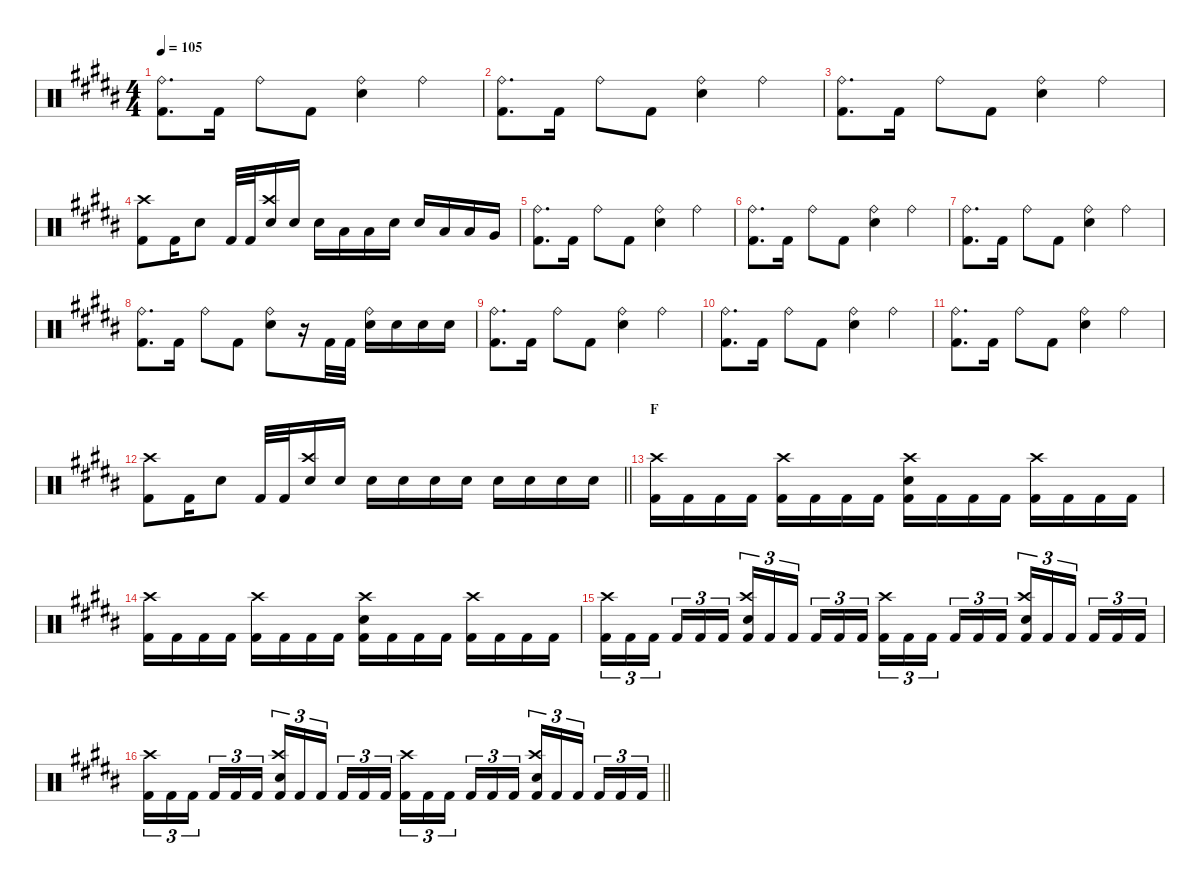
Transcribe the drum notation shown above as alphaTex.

\defaultSystemsLayout 4
\hideDynamics
\bracketExtendMode nobrackets
\singleTrackTrackNamePolicy hidden
\multiTrackTrackNamePolicy hidden
\firstSystemTrackNameMode fullname
\firstSystemTrackNameOrientation horizontal
\otherSystemsTrackNameOrientation horizontal
\track ("Percussions" "drm.") {instrument percussion}
\staff {score}
\articulation defaults
\ts (4 4)
\tempo 105
\clef neutral
\ks b
("Ride (bell)"{acc bb} "Kick (hit) 2"{acc bb}).8{d dy fff beam Down} "Kick (hit) 2"{acc bb}.16{beam Down} "Ride (bell)"{acc bb}.8{beam Down} "Kick (hit) 2"{acc bb}.8{beam Down} ("Ride (bell)"{acc bb} "Snare (hit) 2"{acc bb}).4{beam Down} "Ride (bell)"{acc bb}.4{beam Down} |
("Ride (bell)"{acc bb} "Kick (hit) 2"{acc bb}).8{d beam Down} "Kick (hit) 2"{acc bb}.16{beam Down} "Ride (bell)"{acc bb}.8{beam Down} "Kick (hit) 2"{acc bb}.8{beam Down} ("Ride (bell)"{acc bb} "Snare (hit) 2"{acc bb}).4{beam Down} "Ride (bell)"{acc bb}.4{beam Down} |
("Ride (bell)"{acc bb} "Kick (hit) 2"{acc bb}).8{d beam Down} "Kick (hit) 2"{acc bb}.16{beam Down} "Ride (bell)"{acc bb}.8{beam Down} "Kick (hit) 2"{acc bb}.8{beam Down} ("Ride (bell)"{acc bb} "Snare (hit) 2"{acc bb}).4{beam Down} "Ride (bell)"{acc bb}.4{beam Down} |
("Crash high (hit)"{acc bb} "Kick (hit) 2"{acc bb}).8{beam Down} "Kick (hit) 2"{acc bb}.16{beam Down} "Snare (hit) 2"{acc bb}.8{beam Down} "Kick (hit) 2"{acc bb}.32{beam Up} "Kick (hit) 2"{acc bb}.32{beam Up} ("Crash high (hit)"{acc bb} "Snare (hit) 2"{acc bb}).16{beam Up} "Snare (hit) 2"{acc bb}.16{beam Up} "Snare (hit) 2"{acc bb}.16{beam Down} "Low Tom (hit)"{acc bb}.16{beam Down} "Low Tom (hit)"{acc bb}.16{beam Down} "Snare (hit) 2"{acc bb}.16{beam Down} "Snare (hit) 2"{acc bb}.16{beam Up} "Low Tom (hit)"{acc bb}.16{beam Up} "Low Tom (hit)"{acc bb}.16{beam Up} "Very Low Tom (hit)"{acc bb}.16{beam Up} |
("Ride (bell)"{acc bb} "Kick (hit) 2"{acc bb}).8{d beam Down} "Kick (hit) 2"{acc bb}.16{beam Down} "Ride (bell)"{acc bb}.8{beam Down} "Kick (hit) 2"{acc bb}.8{beam Down} ("Ride (bell)"{acc bb} "Snare (hit) 2"{acc bb}).4{beam Down} "Ride (bell)"{acc bb}.4{beam Down} |
("Ride (bell)"{acc bb} "Kick (hit) 2"{acc bb}).8{d beam Down} "Kick (hit) 2"{acc bb}.16{beam Down} "Ride (bell)"{acc bb}.8{beam Down} "Kick (hit) 2"{acc bb}.8{beam Down} ("Ride (bell)"{acc bb} "Snare (hit) 2"{acc bb}).4{beam Down} "Ride (bell)"{acc bb}.4{beam Down} |
("Ride (bell)"{acc bb} "Kick (hit) 2"{acc bb}).8{d beam Down} "Kick (hit) 2"{acc bb}.16{beam Down} "Ride (bell)"{acc bb}.8{beam Down} "Kick (hit) 2"{acc bb}.8{beam Down} ("Ride (bell)"{acc bb} "Snare (hit) 2"{acc bb}).4{beam Down} "Ride (bell)"{acc bb}.4{beam Down} |
("Ride (bell)"{acc bb} "Kick (hit) 2"{acc bb}).8{d beam Down} "Kick (hit) 2"{acc bb}.16{beam Down} "Ride (bell)"{acc bb}.8{beam Down} "Kick (hit) 2"{acc bb}.8{beam Down} ("Ride (bell)"{acc bb} "Snare (hit) 2"{acc bb}).8{beam Down} r.16{beam Down} "Kick (hit) 2"{acc bb}.32{beam Down} "Kick (hit) 2"{acc bb}.32{beam Down} ("Ride (bell)"{acc bb} "Snare (hit) 2"{acc bb}).16{beam Down} "Snare (hit) 2"{acc bb}.16{beam Down} "Snare (hit) 2"{acc bb}.16{beam Down} "Snare (hit) 2"{acc bb}.16{beam Down} |
("Ride (bell)"{acc bb} "Kick (hit) 2"{acc bb}).8{d beam Down} "Kick (hit) 2"{acc bb}.16{beam Down} "Ride (bell)"{acc bb}.8{beam Down} "Kick (hit) 2"{acc bb}.8{beam Down} ("Ride (bell)"{acc bb} "Snare (hit) 2"{acc bb}).4{beam Down} "Ride (bell)"{acc bb}.4{beam Down} |
("Ride (bell)"{acc bb} "Kick (hit) 2"{acc bb}).8{d beam Down} "Kick (hit) 2"{acc bb}.16{beam Down} "Ride (bell)"{acc bb}.8{beam Down} "Kick (hit) 2"{acc bb}.8{beam Down} ("Ride (bell)"{acc bb} "Snare (hit) 2"{acc bb}).4{beam Down} "Ride (bell)"{acc bb}.4{beam Down} |
("Ride (bell)"{acc bb} "Kick (hit) 2"{acc bb}).8{d beam Down} "Kick (hit) 2"{acc bb}.16{beam Down} "Ride (bell)"{acc bb}.8{beam Down} "Kick (hit) 2"{acc bb}.8{beam Down} ("Ride (bell)"{acc bb} "Snare (hit) 2"{acc bb}).4{beam Down} "Ride (bell)"{acc bb}.4{beam Down} |
\barLineRight lightlight
("Crash high (hit)"{acc bb} "Kick (hit) 2"{acc bb}).8{beam Down} "Kick (hit) 2"{acc bb}.16{beam Down} "Snare (hit) 2"{acc bb}.8{beam Down} "Kick (hit) 2"{acc bb}.32{beam Up} "Kick (hit) 2"{acc bb}.32{beam Up} ("Crash high (hit)"{acc bb} "Snare (hit) 2"{acc bb}).16{beam Up} "Snare (hit) 2"{acc bb}.16{beam Up} "Snare (hit) 2"{acc bb}.16{beam Down} "Snare (hit) 2"{acc bb}.16{beam Down} "Snare (hit) 2"{acc bb}.16{beam Down} "Snare (hit) 2"{acc bb}.16{beam Down} "Snare (hit) 2"{acc bb}.16{beam Down} "Snare (hit) 2"{acc bb}.16{beam Down} "Snare (hit) 2"{acc bb}.16{beam Down} "Snare (hit) 2"{acc bb}.16{beam Down} |
\section ("" "F")
("Crash high (hit)"{acc bb} "Kick (hit) 2"{acc bb}).16{beam Down} "Kick (hit) 2"{acc bb}.16{beam Down} "Kick (hit) 2"{acc bb}.16{beam Down} "Kick (hit) 2"{acc bb}.16{beam Down} ("Crash high (hit)"{acc bb} "Kick (hit) 2"{acc bb}).16{beam Down} "Kick (hit) 2"{acc bb}.16{beam Down} "Kick (hit) 2"{acc bb}.16{beam Down} "Kick (hit) 2"{acc bb}.16{beam Down} ("Crash high (hit)"{acc bb} "Snare (hit) 2"{acc bb} "Kick (hit) 2"{acc bb}).16{beam Down} "Kick (hit) 2"{acc bb}.16{beam Down} "Kick (hit) 2"{acc bb}.16{beam Down} "Kick (hit) 2"{acc bb}.16{beam Down} ("Crash high (hit)"{acc bb} "Kick (hit) 2"{acc bb}).16{beam Down} "Kick (hit) 2"{acc bb}.16{beam Down} "Kick (hit) 2"{acc bb}.16{beam Down} "Kick (hit) 2"{acc bb}.16{beam Down} |
("Crash high (hit)"{acc bb} "Kick (hit) 2"{acc bb}).16{beam Down} "Kick (hit) 2"{acc bb}.16{beam Down} "Kick (hit) 2"{acc bb}.16{beam Down} "Kick (hit) 2"{acc bb}.16{beam Down} ("Crash high (hit)"{acc bb} "Kick (hit) 2"{acc bb}).16{beam Down} "Kick (hit) 2"{acc bb}.16{beam Down} "Kick (hit) 2"{acc bb}.16{beam Down} "Kick (hit) 2"{acc bb}.16{beam Down} ("Crash high (hit)"{acc bb} "Snare (hit) 2"{acc bb} "Kick (hit) 2"{acc bb}).16{beam Down} "Kick (hit) 2"{acc bb}.16{beam Down} "Kick (hit) 2"{acc bb}.16{beam Down} "Kick (hit) 2"{acc bb}.16{beam Down} ("Crash high (hit)"{acc bb} "Kick (hit) 2"{acc bb}).16{beam Down} "Kick (hit) 2"{acc bb}.16{beam Down} "Kick (hit) 2"{acc bb}.16{beam Down} "Kick (hit) 2"{acc bb}.16{beam Down} |
("Crash high (hit)"{acc bb} "Kick (hit) 2"{acc bb}).16{tu (3 2) beam Down} "Kick (hit) 2"{acc bb}.16{tu (3 2) beam Down} "Kick (hit) 2"{acc bb}.16{tu (3 2) beam Down} "Kick (hit) 2"{acc bb}.16{tu (3 2) beam Up} "Kick (hit) 2"{acc bb}.16{tu (3 2) beam Up} "Kick (hit) 2"{acc bb}.16{tu (3 2) beam Up} ("Crash high (hit)"{acc bb} "Snare (hit) 2"{acc bb} "Kick (hit) 2"{acc bb}).16{tu (3 2) beam Up} "Kick (hit) 2"{acc bb}.16{tu (3 2) beam Up} "Kick (hit) 2"{acc bb}.16{tu (3 2) beam Up} "Kick (hit) 2"{acc bb}.16{tu (3 2) beam Up} "Kick (hit) 2"{acc bb}.16{tu (3 2) beam Up} "Kick (hit) 2"{acc bb}.16{tu (3 2) beam Up} ("Crash high (hit)"{acc bb} "Kick (hit) 2"{acc bb}).16{tu (3 2) beam Down} "Kick (hit) 2"{acc bb}.16{tu (3 2) beam Down} "Kick (hit) 2"{acc bb}.16{tu (3 2) beam Down} "Kick (hit) 2"{acc bb}.16{tu (3 2) beam Up} "Kick (hit) 2"{acc bb}.16{tu (3 2) beam Up} "Kick (hit) 2"{acc bb}.16{tu (3 2) beam Up} ("Crash high (hit)"{acc bb} "Snare (hit) 2"{acc bb} "Kick (hit) 2"{acc bb}).16{tu (3 2) beam Up} "Kick (hit) 2"{acc bb}.16{tu (3 2) beam Up} "Kick (hit) 2"{acc bb}.16{tu (3 2) beam Up} "Kick (hit) 2"{acc bb}.16{tu (3 2) beam Up} "Kick (hit) 2"{acc bb}.16{tu (3 2) beam Up} "Kick (hit) 2"{acc bb}.16{tu (3 2) beam Up} |
\barLineRight lightlight
("Crash high (hit)"{acc bb} "Kick (hit) 2"{acc bb}).16{tu (3 2) beam Down} "Kick (hit) 2"{acc bb}.16{tu (3 2) beam Down} "Kick (hit) 2"{acc bb}.16{tu (3 2) beam Down} "Kick (hit) 2"{acc bb}.16{tu (3 2) beam Up} "Kick (hit) 2"{acc bb}.16{tu (3 2) beam Up} "Kick (hit) 2"{acc bb}.16{tu (3 2) beam Up} ("Crash high (hit)"{acc bb} "Snare (hit) 2"{acc bb} "Kick (hit) 2"{acc bb}).16{tu (3 2) beam Up} "Kick (hit) 2"{acc bb}.16{tu (3 2) beam Up} "Kick (hit) 2"{acc bb}.16{tu (3 2) beam Up} "Kick (hit) 2"{acc bb}.16{tu (3 2) beam Up} "Kick (hit) 2"{acc bb}.16{tu (3 2) beam Up} "Kick (hit) 2"{acc bb}.16{tu (3 2) beam Up} ("Crash high (hit)"{acc bb} "Kick (hit) 2"{acc bb}).16{tu (3 2) beam Down} "Kick (hit) 2"{acc bb}.16{tu (3 2) beam Down} "Kick (hit) 2"{acc bb}.16{tu (3 2) beam Down} "Kick (hit) 2"{acc bb}.16{tu (3 2) beam Up} "Kick (hit) 2"{acc bb}.16{tu (3 2) beam Up} "Kick (hit) 2"{acc bb}.16{tu (3 2) beam Up} ("Crash high (hit)"{acc bb} "Snare (hit) 2"{acc bb} "Kick (hit) 2"{acc bb}).16{tu (3 2) beam Up} "Kick (hit) 2"{acc bb}.16{tu (3 2) beam Up} "Kick (hit) 2"{acc bb}.16{tu (3 2) beam Up} "Kick (hit) 2"{acc bb}.16{tu (3 2) beam Up} "Kick (hit) 2"{acc bb}.16{tu (3 2) beam Up} "Kick (hit) 2"{acc bb}.16{tu (3 2) beam Up}
